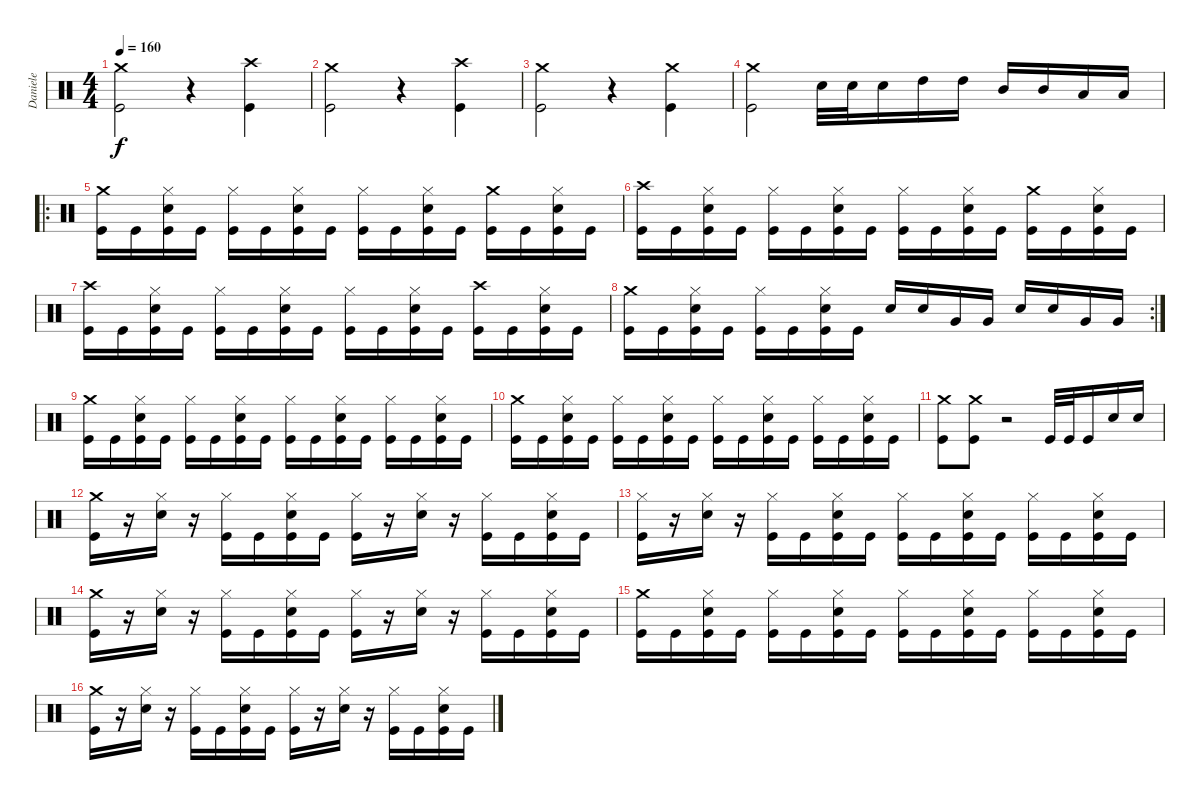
\track ("Daniele" "Daniele") {instrument percussion}
\staff {score}
\articulation defaults
\ts (4 4)
\tempo 160
\clef neutral
\ks c
("Kick (hit)" "Crash medium (hit)").2{dy f} r.4 ("Kick (hit)" "Crash high (hit)").4 |
("Kick (hit)" "Crash medium (hit)").2 r.4 ("Kick (hit)" "Crash high (hit)").4 |
("Kick (hit)" "Crash medium (hit)").2 r.4 ("Kick (hit)" "Crash medium (hit)").4 |
("Kick (hit)" "Crash medium (hit)").2 "Electric Snare (hit)".32 "Electric Snare (hit)".32 "Electric Snare (hit)".16 "High Tom (hit)".16 "High Tom (hit)".16 "Mid Tom (hit)".16 "Mid Tom (hit)".16 "Low Tom (hit)".16 "Low Tom (hit)".16 |
\ro
("Kick (hit)" "Crash medium (hit)").16 "Kick (hit)".16 ("Kick (hit)" "Electric Snare (hit)" "Hi-Hat (closed)").16 "Kick (hit)".16 ("Kick (hit)" "Hi-Hat (closed)").16 "Kick (hit)".16 ("Kick (hit)" "Electric Snare (hit)" "Hi-Hat (closed)").16 "Kick (hit)".16 ("Kick (hit)" "Hi-Hat (closed)").16 "Kick (hit)".16 ("Kick (hit)" "Electric Snare (hit)" "Hi-Hat (closed)").16 "Kick (hit)".16 ("Kick (hit)" "Crash medium (hit)").16 "Kick (hit)".16 ("Kick (hit)" "Electric Snare (hit)" "Hi-Hat (closed)").16 "Kick (hit)".16 |
("Kick (hit)" "Crash high (hit)").16 "Kick (hit)".16 ("Kick (hit)" "Electric Snare (hit)" "Hi-Hat (closed)").16 "Kick (hit)".16 ("Kick (hit)" "Hi-Hat (closed)").16 "Kick (hit)".16 ("Kick (hit)" "Electric Snare (hit)" "Hi-Hat (closed)").16 "Kick (hit)".16 ("Kick (hit)" "Hi-Hat (closed)").16 "Kick (hit)".16 ("Kick (hit)" "Electric Snare (hit)" "Hi-Hat (closed)").16 "Kick (hit)".16 ("Kick (hit)" "Crash medium (hit)").16 "Kick (hit)".16 ("Kick (hit)" "Electric Snare (hit)" "Hi-Hat (closed)").16 "Kick (hit)".16 |
("Kick (hit)" "Crash high (hit)").16 "Kick (hit)".16 ("Kick (hit)" "Electric Snare (hit)" "Hi-Hat (closed)").16 "Kick (hit)".16 ("Kick (hit)" "Hi-Hat (closed)").16 "Kick (hit)".16 ("Kick (hit)" "Electric Snare (hit)" "Hi-Hat (closed)").16 "Kick (hit)".16 ("Kick (hit)" "Hi-Hat (closed)").16 "Kick (hit)".16 ("Kick (hit)" "Electric Snare (hit)" "Hi-Hat (closed)").16 "Kick (hit)".16 ("Kick (hit)" "Crash high (hit)").16 "Kick (hit)".16 ("Kick (hit)" "Electric Snare (hit)" "Hi-Hat (closed)").16 "Kick (hit)".16 |
\rc 2
("Kick (hit)" "Crash medium (hit)").16 "Kick (hit)".16 ("Kick (hit)" "Electric Snare (hit)" "Hi-Hat (closed)").16 "Kick (hit)".16 ("Kick (hit)" "Hi-Hat (closed)").16 "Kick (hit)".16 ("Kick (hit)" "Electric Snare (hit)" "Hi-Hat (closed)").16 "Kick (hit)".16 "Electric Snare (hit)".16 "Electric Snare (hit)".16 "Very Low Tom (hit)".16 "Very Low Tom (hit)".16 "Electric Snare (hit)".16 "Electric Snare (hit)".16 "Very Low Tom (hit)".16 "Very Low Tom (hit)".16 |
("Kick (hit)" "Crash medium (hit)").16 "Kick (hit)".16 ("Kick (hit)" "Electric Snare (hit)" "Hi-Hat (closed)").16 "Kick (hit)".16 ("Kick (hit)" "Hi-Hat (closed)").16 "Kick (hit)".16 ("Kick (hit)" "Electric Snare (hit)" "Hi-Hat (closed)").16 "Kick (hit)".16 ("Kick (hit)" "Hi-Hat (closed)").16 "Kick (hit)".16 ("Kick (hit)" "Electric Snare (hit)" "Hi-Hat (closed)").16 "Kick (hit)".16 ("Kick (hit)" "Hi-Hat (closed)").16 "Kick (hit)".16 ("Kick (hit)" "Electric Snare (hit)" "Hi-Hat (closed)").16 "Kick (hit)".16 |
("Kick (hit)" "Crash medium (hit)").16 "Kick (hit)".16 ("Kick (hit)" "Electric Snare (hit)" "Hi-Hat (closed)").16 "Kick (hit)".16 ("Kick (hit)" "Hi-Hat (closed)").16 "Kick (hit)".16 ("Kick (hit)" "Electric Snare (hit)" "Hi-Hat (closed)").16 "Kick (hit)".16 ("Kick (hit)" "Hi-Hat (closed)").16 "Kick (hit)".16 ("Kick (hit)" "Electric Snare (hit)" "Hi-Hat (closed)").16 "Kick (hit)".16 ("Kick (hit)" "Hi-Hat (closed)").16 "Kick (hit)".16 ("Kick (hit)" "Electric Snare (hit)" "Hi-Hat (closed)").16 "Kick (hit)".16 |
("Kick (hit)" "Crash medium (hit)").8 ("Kick (hit)" "Crash medium (hit)").8 r.2 "Kick (hit)".32 "Kick (hit)".32 "Kick (hit)".16 "Electric Snare (hit)".16 "Electric Snare (hit)".16 |
("Kick (hit)" "Crash medium (hit)").16 r.16 ("Electric Snare (hit)" "Hi-Hat (closed)").16 r.16 ("Kick (hit)" "Hi-Hat (closed)").16 "Kick (hit)".16 ("Kick (hit)" "Electric Snare (hit)" "Hi-Hat (closed)").16 "Kick (hit)".16 ("Kick (hit)" "Hi-Hat (closed)").16 r.16 ("Electric Snare (hit)" "Hi-Hat (closed)").16 r.16 ("Kick (hit)" "Hi-Hat (closed)").16 "Kick (hit)".16 ("Kick (hit)" "Electric Snare (hit)" "Hi-Hat (closed)").16 "Kick (hit)".16 |
("Kick (hit)" "Hi-Hat (closed)").16 r.16 ("Electric Snare (hit)" "Hi-Hat (closed)").16 r.16 ("Kick (hit)" "Hi-Hat (closed)").16 "Kick (hit)".16 ("Kick (hit)" "Electric Snare (hit)" "Hi-Hat (closed)").16 "Kick (hit)".16 ("Kick (hit)" "Hi-Hat (closed)").16 "Kick (hit)".16 ("Kick (hit)" "Electric Snare (hit)" "Hi-Hat (closed)").16 "Kick (hit)".16 ("Kick (hit)" "Hi-Hat (closed)").16 "Kick (hit)".16 ("Kick (hit)" "Electric Snare (hit)" "Hi-Hat (closed)").16 "Kick (hit)".16 |
("Kick (hit)" "Crash medium (hit)").16 r.16 ("Electric Snare (hit)" "Hi-Hat (closed)").16 r.16 ("Kick (hit)" "Hi-Hat (closed)").16 "Kick (hit)".16 ("Kick (hit)" "Electric Snare (hit)" "Hi-Hat (closed)").16 "Kick (hit)".16 ("Kick (hit)" "Hi-Hat (closed)").16 r.16 ("Electric Snare (hit)" "Hi-Hat (closed)").16 r.16 ("Kick (hit)" "Hi-Hat (closed)").16 "Kick (hit)".16 ("Kick (hit)" "Electric Snare (hit)" "Hi-Hat (closed)").16 "Kick (hit)".16 |
("Kick (hit)" "Crash medium (hit)").16 "Kick (hit)".16 ("Kick (hit)" "Electric Snare (hit)" "Hi-Hat (closed)").16 "Kick (hit)".16 ("Kick (hit)" "Hi-Hat (closed)").16 "Kick (hit)".16 ("Kick (hit)" "Electric Snare (hit)" "Hi-Hat (closed)").16 "Kick (hit)".16 ("Kick (hit)" "Hi-Hat (closed)").16 "Kick (hit)".16 ("Kick (hit)" "Electric Snare (hit)" "Hi-Hat (closed)").16 "Kick (hit)".16 ("Kick (hit)" "Hi-Hat (closed)").16 "Kick (hit)".16 ("Kick (hit)" "Electric Snare (hit)" "Hi-Hat (closed)").16 "Kick (hit)".16 |
("Kick (hit)" "Crash medium (hit)").16 r.16 ("Electric Snare (hit)" "Hi-Hat (closed)").16 r.16 ("Kick (hit)" "Hi-Hat (closed)").16 "Kick (hit)".16 ("Kick (hit)" "Electric Snare (hit)" "Hi-Hat (closed)").16 "Kick (hit)".16 ("Kick (hit)" "Hi-Hat (closed)").16 r.16 ("Electric Snare (hit)" "Hi-Hat (closed)").16 r.16 ("Kick (hit)" "Hi-Hat (closed)").16 "Kick (hit)".16 ("Kick (hit)" "Electric Snare (hit)" "Hi-Hat (closed)").16 "Kick (hit)".16
